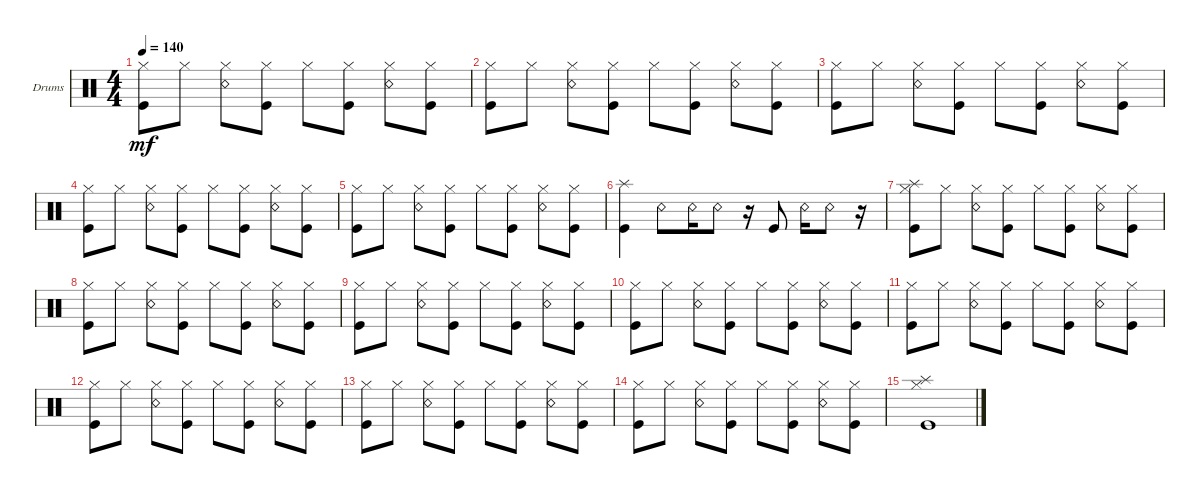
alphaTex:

\defaultSystemsLayout 4
\bracketExtendMode groupsimilarinstruments
\firstSystemTrackNameOrientation horizontal
\otherSystemsTrackNameOrientation horizontal
\track ("Drumkit" "Drums") {instrument percussion}
\staff {score}
\articulation defaults
\ts (4 4)
\tempo 140
\clef neutral
\ks c
("Kick (hit)" "Hi-Hat (closed)").8{dy mf} "Hi-Hat (closed)".8 ("Hi-Hat (closed)" "Snare (rim shot)").8 ("Hi-Hat (closed)" "Kick (hit)").8 "Hi-Hat (closed)".8 ("Hi-Hat (closed)" "Kick (hit)").8 ("Hi-Hat (closed)" "Snare (rim shot)").8 ("Hi-Hat (closed)" "Kick (hit)").8 |
("Kick (hit)" "Hi-Hat (closed)").8 "Hi-Hat (closed)".8 ("Hi-Hat (closed)" "Snare (rim shot)").8 ("Hi-Hat (closed)" "Kick (hit)").8 "Hi-Hat (closed)".8 ("Hi-Hat (closed)" "Kick (hit)").8 ("Hi-Hat (closed)" "Snare (rim shot)").8 ("Hi-Hat (closed)" "Kick (hit)").8 |
("Kick (hit)" "Hi-Hat (closed)").8 "Hi-Hat (closed)".8 ("Hi-Hat (closed)" "Snare (rim shot)").8 ("Hi-Hat (closed)" "Kick (hit)").8 "Hi-Hat (closed)".8 ("Hi-Hat (closed)" "Kick (hit)").8 ("Hi-Hat (closed)" "Snare (rim shot)").8 ("Hi-Hat (closed)" "Kick (hit)").8 |
("Kick (hit)" "Hi-Hat (closed)").8 "Hi-Hat (closed)".8 ("Hi-Hat (closed)" "Snare (rim shot)").8 ("Hi-Hat (closed)" "Kick (hit)").8 "Hi-Hat (closed)".8 ("Hi-Hat (closed)" "Kick (hit)").8 ("Hi-Hat (closed)" "Snare (rim shot)").8 ("Hi-Hat (closed)" "Kick (hit)").8 |
("Kick (hit)" "Hi-Hat (closed)").8 "Hi-Hat (closed)".8 ("Hi-Hat (closed)" "Snare (rim shot)").8 ("Hi-Hat (closed)" "Kick (hit)").8 "Hi-Hat (closed)".8 ("Hi-Hat (closed)" "Kick (hit)").8 ("Hi-Hat (closed)" "Snare (rim shot)").8 ("Hi-Hat (closed)" "Kick (hit)").8 |
("Splash (hit)" "Kick (hit)").4 "Snare (rim shot)".8 "Snare (rim shot)".16 "Snare (rim shot)".8 r.16 "Kick (hit)".8 "Snare (rim shot)".16 "Snare (rim shot)".8 r.16 |
("Kick (hit)" "Hi-Hat (closed)" "Splash (hit)").8 "Hi-Hat (closed)".8 ("Hi-Hat (closed)" "Snare (rim shot)").8 ("Hi-Hat (closed)" "Kick (hit)").8 "Hi-Hat (closed)".8 ("Hi-Hat (closed)" "Kick (hit)").8 ("Hi-Hat (closed)" "Snare (rim shot)").8 ("Hi-Hat (closed)" "Kick (hit)").8 |
("Kick (hit)" "Hi-Hat (closed)").8 "Hi-Hat (closed)".8 ("Hi-Hat (closed)" "Snare (rim shot)").8 ("Hi-Hat (closed)" "Kick (hit)").8 "Hi-Hat (closed)".8 ("Hi-Hat (closed)" "Kick (hit)").8 ("Hi-Hat (closed)" "Snare (rim shot)").8 ("Hi-Hat (closed)" "Kick (hit)").8 |
("Kick (hit)" "Hi-Hat (closed)").8 "Hi-Hat (closed)".8 ("Hi-Hat (closed)" "Snare (rim shot)").8 ("Hi-Hat (closed)" "Kick (hit)").8 "Hi-Hat (closed)".8 ("Hi-Hat (closed)" "Kick (hit)").8 ("Hi-Hat (closed)" "Snare (rim shot)").8 ("Hi-Hat (closed)" "Kick (hit)").8 |
("Kick (hit)" "Hi-Hat (closed)").8 "Hi-Hat (closed)".8 ("Hi-Hat (closed)" "Snare (rim shot)").8 ("Hi-Hat (closed)" "Kick (hit)").8 "Hi-Hat (closed)".8 ("Hi-Hat (closed)" "Kick (hit)").8 ("Hi-Hat (closed)" "Snare (rim shot)").8 ("Hi-Hat (closed)" "Kick (hit)").8 |
("Kick (hit)" "Hi-Hat (closed)").8 "Hi-Hat (closed)".8 ("Hi-Hat (closed)" "Snare (rim shot)").8 ("Hi-Hat (closed)" "Kick (hit)").8 "Hi-Hat (closed)".8 ("Hi-Hat (closed)" "Kick (hit)").8 ("Hi-Hat (closed)" "Snare (rim shot)").8 ("Hi-Hat (closed)" "Kick (hit)").8 |
("Kick (hit)" "Hi-Hat (closed)").8 "Hi-Hat (closed)".8 ("Hi-Hat (closed)" "Snare (rim shot)").8 ("Hi-Hat (closed)" "Kick (hit)").8 "Hi-Hat (closed)".8 ("Hi-Hat (closed)" "Kick (hit)").8 ("Hi-Hat (closed)" "Snare (rim shot)").8 ("Hi-Hat (closed)" "Kick (hit)").8 |
("Kick (hit)" "Hi-Hat (closed)").8 "Hi-Hat (closed)".8 ("Hi-Hat (closed)" "Snare (rim shot)").8 ("Hi-Hat (closed)" "Kick (hit)").8 "Hi-Hat (closed)".8 ("Hi-Hat (closed)" "Kick (hit)").8 ("Hi-Hat (closed)" "Snare (rim shot)").8 ("Hi-Hat (closed)" "Kick (hit)").8 |
("Kick (hit)" "Hi-Hat (closed)").8 "Hi-Hat (closed)".8 ("Hi-Hat (closed)" "Snare (rim shot)").8 ("Hi-Hat (closed)" "Kick (hit)").8 "Hi-Hat (closed)".8 ("Hi-Hat (closed)" "Kick (hit)").8 ("Hi-Hat (closed)" "Snare (rim shot)").8 ("Hi-Hat (closed)" "Kick (hit)").8 |
("Kick (hit)" "Hi-Hat (closed)" "Splash (hit)").1
